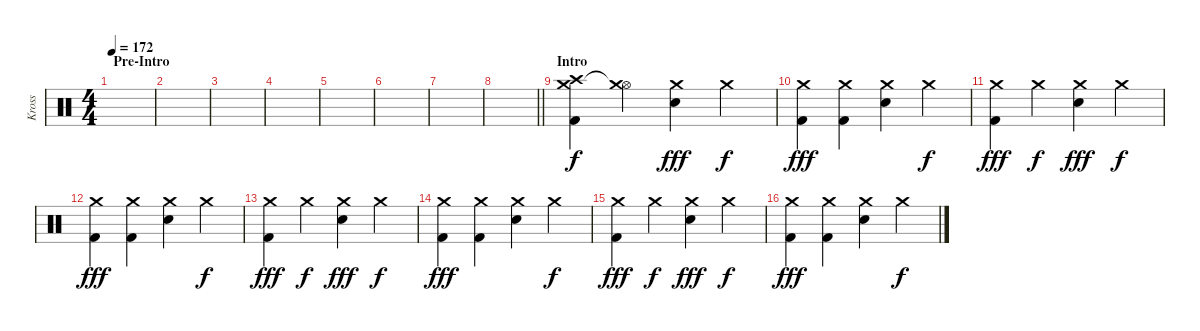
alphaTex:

\track ("Kross" "Kross") {instrument percussion}
\staff {score}
\articulation defaults
\ts (4 4)
\section ("" "Pre-Intro")
\tempo 172
\clef neutral
\ks c
|
|
|
|
|
|
|
\barLineRight lightlight
|
\section ("" "Intro")
("Crash medium (hit)" "Crash high (hit)" "Kick (hit) 2").4 ("Hi-Hat (open)"{t} "Crash medium (hit)").4{dy f} ("Crash medium (hit)" "Snare (hit) 2").4{dy fff} "Crash medium (hit)".4{dy f} |
("Crash medium (hit)" "Kick (hit) 2").4{dy fff} ("Crash medium (hit)" "Kick (hit) 2").4 ("Crash medium (hit)" "Snare (hit) 2").4 "Crash medium (hit)".4{dy f} |
("Crash medium (hit)" "Kick (hit) 2").4{dy fff} "Crash medium (hit)".4{dy f} ("Crash medium (hit)" "Snare (hit) 2").4{dy fff} "Crash medium (hit)".4{dy f} |
("Crash medium (hit)" "Kick (hit) 2").4{dy fff} ("Crash medium (hit)" "Kick (hit) 2").4 ("Crash medium (hit)" "Snare (hit) 2").4 "Crash medium (hit)".4{dy f} |
("Crash medium (hit)" "Kick (hit) 2").4{dy fff} "Crash medium (hit)".4{dy f} ("Crash medium (hit)" "Snare (hit) 2").4{dy fff} "Crash medium (hit)".4{dy f} |
("Crash medium (hit)" "Kick (hit) 2").4{dy fff} ("Crash medium (hit)" "Kick (hit) 2").4 ("Crash medium (hit)" "Snare (hit) 2").4 "Crash medium (hit)".4{dy f} |
("Crash medium (hit)" "Kick (hit) 2").4{dy fff} "Crash medium (hit)".4{dy f} ("Crash medium (hit)" "Snare (hit) 2").4{dy fff} "Crash medium (hit)".4{dy f} |
("Crash medium (hit)" "Kick (hit) 2").4{dy fff} ("Crash medium (hit)" "Kick (hit) 2").4 ("Crash medium (hit)" "Snare (hit) 2").4 "Crash medium (hit)".4{dy f}
